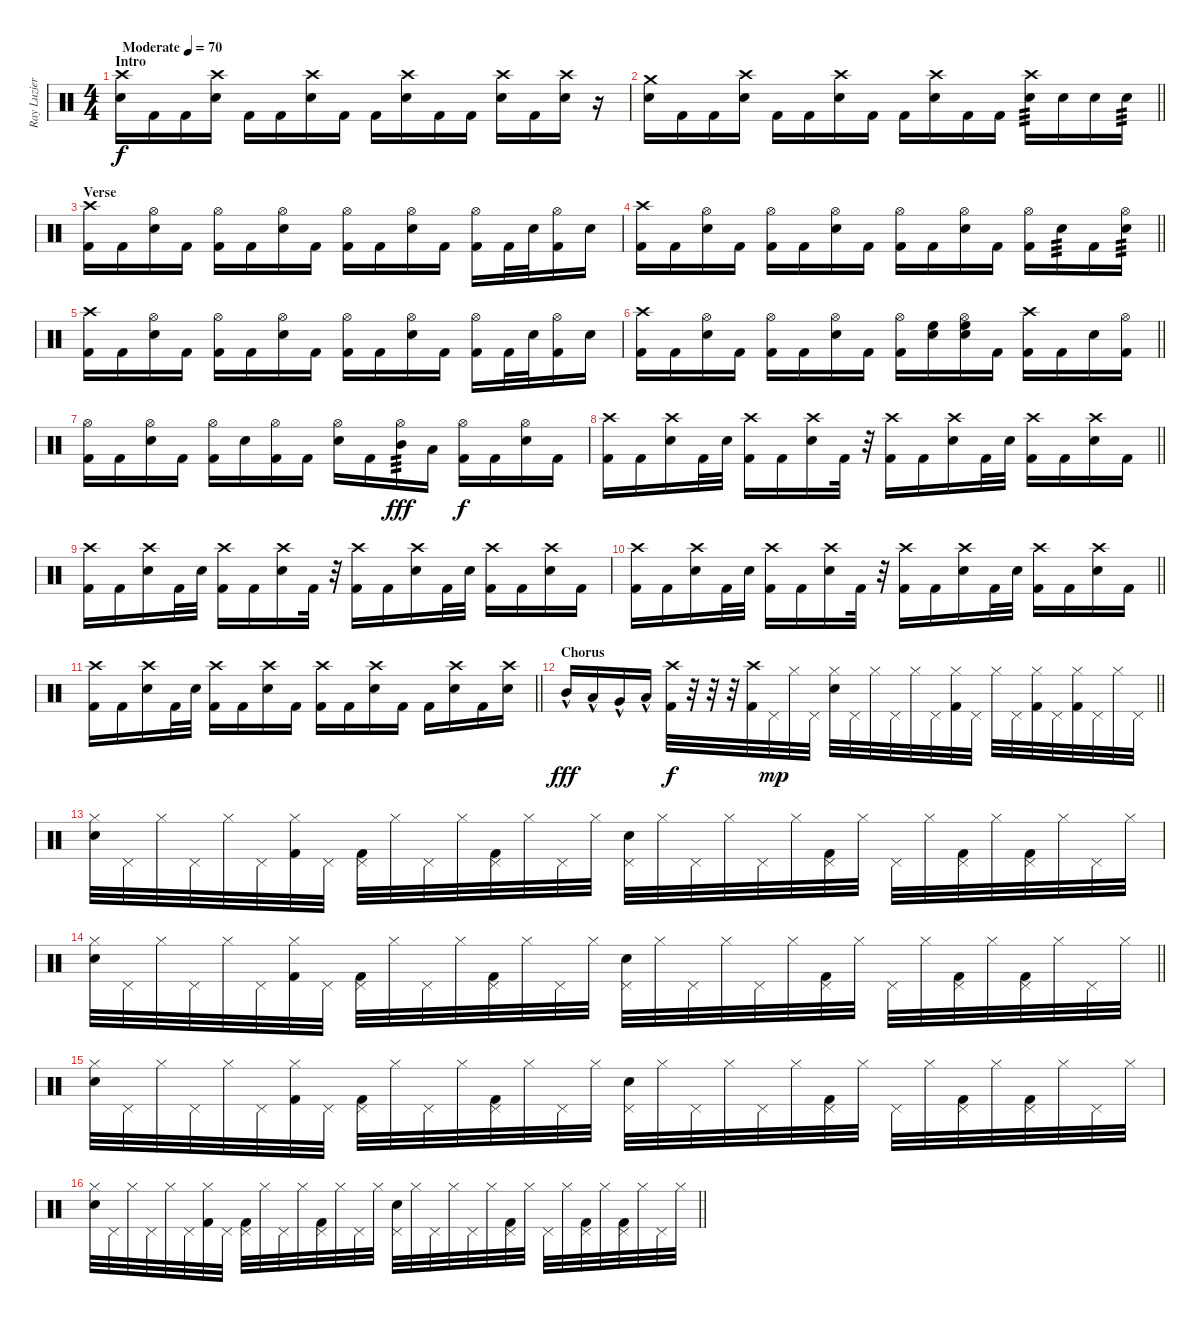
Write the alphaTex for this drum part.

\track ("Ray Luzier (Drums)" "Ray Luzier") {instrument percussion}
\staff {score}
\articulation defaults
\ts (4 4)
\section ("" "Intro")
\tempo (70 "Moderate")
\clef neutral
\ks c
("Crash high (hit)" "Electric Snare (hit)").16{dy f} "Kick (hit) 2".16 "Kick (hit) 2".16 ("Crash high (hit)" "Electric Snare (hit)").16 "Kick (hit) 2".16 "Kick (hit) 2".16 ("Crash high (hit)" "Electric Snare (hit)").16 "Kick (hit) 2".16 "Kick (hit) 2".16 ("Crash high (hit)" "Electric Snare (hit)").16 "Kick (hit) 2".16 "Kick (hit) 2".16 ("Crash high (hit)" "Electric Snare (hit)").16 "Kick (hit) 2".16 ("Crash high (hit)" "Electric Snare (hit)").16 r.16 |
\barLineRight lightlight
("Crash medium (hit)" "Electric Snare (hit)").16 "Kick (hit) 2".16 "Kick (hit) 2".16 ("Crash high (hit)" "Electric Snare (hit)").16 "Kick (hit) 2".16 "Kick (hit) 2".16 ("Crash high (hit)" "Electric Snare (hit)").16 "Kick (hit) 2".16 "Kick (hit) 2".16 ("Crash high (hit)" "Electric Snare (hit)").16 "Kick (hit) 2".16 "Kick (hit) 2".16 ("Crash high (hit)" "Electric Snare (hit)").16{tp 3} "Electric Snare (hit)".16 "Electric Snare (hit)".16 "Electric Snare (hit)".16{tp 3} |
\section ("" "Verse")
("Crash high (hit)" "Kick (hit) 2").16 "Kick (hit) 2".16 ("Hi-Hat (open)" "Electric Snare (hit)").16 "Kick (hit) 2".16 ("Hi-Hat (open)" "Kick (hit) 2").16 "Kick (hit) 2".16 ("Hi-Hat (open)" "Electric Snare (hit)").16 "Kick (hit) 2".16 ("Hi-Hat (open)" "Kick (hit) 2").16 "Kick (hit) 2".16 ("Hi-Hat (open)" "Electric Snare (hit)").16 "Kick (hit) 2".16 ("Hi-Hat (open)" "Kick (hit) 2").16 "Kick (hit) 2".32 "Electric Snare (hit)".32 ("Hi-Hat (open)" "Kick (hit) 2").16 "Electric Snare (hit)".16 |
\barLineRight lightlight
("Crash high (hit)" "Kick (hit) 2").16 "Kick (hit) 2".16 ("Hi-Hat (open)" "Electric Snare (hit)").16 "Kick (hit) 2".16 ("Hi-Hat (open)" "Kick (hit) 2").16 "Kick (hit) 2".16 ("Hi-Hat (open)" "Electric Snare (hit)").16 "Kick (hit) 2".16 ("Hi-Hat (open)" "Kick (hit) 2").16 "Kick (hit) 2".16 ("Hi-Hat (open)" "Electric Snare (hit)").16 "Kick (hit) 2".16 ("Hi-Hat (open)" "Kick (hit) 2").16 "Electric Snare (hit)".16{tp 3} "Kick (hit) 2".16 ("Hi-Hat (open)" "Electric Snare (hit)").16{tp 3} |
("Crash high (hit)" "Kick (hit) 2").16 "Kick (hit) 2".16 ("Hi-Hat (open)" "Electric Snare (hit)").16 "Kick (hit) 2".16 ("Hi-Hat (open)" "Kick (hit) 2").16 "Kick (hit) 2".16 ("Hi-Hat (open)" "Electric Snare (hit)").16 "Kick (hit) 2".16 ("Hi-Hat (open)" "Kick (hit) 2").16 "Kick (hit) 2".16 ("Hi-Hat (open)" "Electric Snare (hit)").16 "Kick (hit) 2".16 ("Hi-Hat (open)" "Kick (hit) 2").16 "Kick (hit) 2".32 "Electric Snare (hit)".32 ("Hi-Hat (open)" "Kick (hit) 2").16 "Electric Snare (hit)".16 |
\barLineRight lightlight
("Crash high (hit)" "Kick (hit) 2").16 "Kick (hit) 2".16 ("Hi-Hat (open)" "Electric Snare (hit)").16 "Kick (hit) 2".16 ("Hi-Hat (open)" "Kick (hit) 2").16 "Kick (hit) 2".16 ("Hi-Hat (open)" "Electric Snare (hit)").16 "Kick (hit) 2".16 ("Hi-Hat (open)" "Kick (hit) 2").16 ("Electric Snare (hit)" "High Floor Tom (hit)").16 ("Hi-Hat (open)" "Electric Snare (hit)" "High Floor Tom (hit)").16 "Kick (hit) 2".16 ("Crash high (hit)" "Kick (hit) 2").16 "Kick (hit) 2".16 "Electric Snare (hit)".16 ("Hi-Hat (open)" "Kick (hit) 2").16 |
("Hi-Hat (open)" "Kick (hit) 2").16 "Kick (hit) 2".16 ("Hi-Hat (open)" "Electric Snare (hit)").16 "Kick (hit) 2".16 ("Hi-Hat (open)" "Kick (hit) 2").16 "Electric Snare (hit)".16 ("Hi-Hat (open)" "Kick (hit) 2").16 "Kick (hit) 2".16 ("Hi-Hat (open)" "Electric Snare (hit)").16 "Kick (hit) 2".16 ("Hi-Hat (open)" "Mid Tom (hit)").16{tp 3 dy fff} "Low Tom (hit)".16 ("Hi-Hat (open)" "Kick (hit) 2").16{dy f} "Kick (hit) 2".16 ("Hi-Hat (open)" "Electric Snare (hit)").16 "Kick (hit) 2".16 |
\barLineRight lightlight
("Crash high (hit)" "Kick (hit) 2").16 "Kick (hit) 2".16 ("Crash high (hit)" "Electric Snare (hit)").16 "Kick (hit) 2".32 "Electric Snare (hit)".32 ("Crash high (hit)" "Kick (hit) 2").16 "Kick (hit) 2".16 ("Crash high (hit)" "Electric Snare (hit)").16 "Kick (hit) 2".32 r.32 ("Crash high (hit)" "Kick (hit) 2").16 "Kick (hit) 2".16 ("Crash high (hit)" "Electric Snare (hit)").16 "Kick (hit) 2".32 "Electric Snare (hit)".32 ("Crash high (hit)" "Kick (hit) 2").16 "Kick (hit) 2".16 ("Crash high (hit)" "Electric Snare (hit)").16 "Kick (hit) 2".16 |
("Crash high (hit)" "Kick (hit) 2").16 "Kick (hit) 2".16 ("Crash high (hit)" "Electric Snare (hit)").16 "Kick (hit) 2".32 "Electric Snare (hit)".32 ("Crash high (hit)" "Kick (hit) 2").16 "Kick (hit) 2".16 ("Crash high (hit)" "Electric Snare (hit)").16 "Kick (hit) 2".32 r.32 ("Crash high (hit)" "Kick (hit) 2").16 "Kick (hit) 2".16 ("Crash high (hit)" "Electric Snare (hit)").16 "Kick (hit) 2".32 "Electric Snare (hit)".32 ("Crash high (hit)" "Kick (hit) 2").16 "Kick (hit) 2".16 ("Crash high (hit)" "Electric Snare (hit)").16 "Kick (hit) 2".16 |
\barLineRight lightlight
("Crash high (hit)" "Kick (hit) 2").16 "Kick (hit) 2".16 ("Crash high (hit)" "Electric Snare (hit)").16 "Kick (hit) 2".32 "Electric Snare (hit)".32 ("Crash high (hit)" "Kick (hit) 2").16 "Kick (hit) 2".16 ("Crash high (hit)" "Electric Snare (hit)").16 "Kick (hit) 2".32 r.32 ("Crash high (hit)" "Kick (hit) 2").16 "Kick (hit) 2".16 ("Crash high (hit)" "Electric Snare (hit)").16 "Kick (hit) 2".32 "Electric Snare (hit)".32 ("Crash high (hit)" "Kick (hit) 2").16 "Kick (hit) 2".16 ("Crash high (hit)" "Electric Snare (hit)").16 "Kick (hit) 2".16 |
\barLineRight lightlight
("Crash high (hit)" "Kick (hit) 2").16 "Kick (hit) 2".16 ("Crash high (hit)" "Electric Snare (hit)").16 "Kick (hit) 2".32 "Electric Snare (hit)".32 ("Crash high (hit)" "Kick (hit) 2").16 "Kick (hit) 2".16 ("Crash high (hit)" "Electric Snare (hit)").16 "Kick (hit) 2".16 ("Crash high (hit)" "Kick (hit) 2").16 "Kick (hit) 2".16 ("Crash high (hit)" "Electric Snare (hit)").16 "Kick (hit) 2".16 "Kick (hit) 2".16 ("Crash high (hit)" "Electric Snare (hit)").16 "Kick (hit) 2".16 ("Crash high (hit)" "Electric Snare (hit)").16 |
\section ("" "Chorus")
\barLineRight lightlight "Mid Tom (hit)"{hac}.16{dy fff} "Low Tom (hit)"{hac}.16 "Very Low Tom (hit)"{hac}.16 "Low Floor Tom (hit)"{hac}.16
("Crash high (hit)" "Kick (hit) 2").32{dy f} r.32 r.32 r.32 ("Crash high (hit)" "Kick (hit) 2").32 "Pedal Hi-Hat (hit)".32{dy mp} "Hi-Hat (closed)".32 "Pedal Hi-Hat (hit)".32 ("Hi-Hat (closed)" "Electric Snare (hit)").32 "Pedal Hi-Hat (hit)".32 "Hi-Hat (closed)".32 "Pedal Hi-Hat (hit)".32 "Hi-Hat (closed)".32 "Pedal Hi-Hat (hit)".32 ("Hi-Hat (closed)" "Kick (hit) 2").32 "Pedal Hi-Hat (hit)".32 "Hi-Hat (closed)".32 "Pedal Hi-Hat (hit)".32 ("Hi-Hat (closed)" "Kick (hit) 2").32 "Pedal Hi-Hat (hit)".32 ("Hi-Hat (closed)" "Kick (hit) 2").32 "Pedal Hi-Hat (hit)".32 "Hi-Hat (closed)".32 "Pedal Hi-Hat (hit)".32 |
("Hi-Hat (closed)" "Electric Snare (hit)").32 "Pedal Hi-Hat (hit)".32 "Hi-Hat (closed)".32 "Pedal Hi-Hat (hit)".32 "Hi-Hat (closed)".32 "Pedal Hi-Hat (hit)".32 ("Hi-Hat (closed)" "Kick (hit) 2").32 "Pedal Hi-Hat (hit)".32 ("Pedal Hi-Hat (hit)" "Kick (hit) 2").32 "Hi-Hat (closed)".32 "Pedal Hi-Hat (hit)".32 "Hi-Hat (closed)".32 ("Pedal Hi-Hat (hit)" "Kick (hit) 2").32 "Hi-Hat (closed)".32 "Pedal Hi-Hat (hit)".32 "Hi-Hat (closed)".32 ("Pedal Hi-Hat (hit)" "Electric Snare (hit)").32 "Hi-Hat (closed)".32 "Pedal Hi-Hat (hit)".32 "Hi-Hat (closed)".32 "Pedal Hi-Hat (hit)".32 "Hi-Hat (closed)".32 ("Pedal Hi-Hat (hit)" "Kick (hit) 2").32 "Hi-Hat (closed)".32 "Pedal Hi-Hat (hit)".32 "Hi-Hat (closed)".32 ("Pedal Hi-Hat (hit)" "Kick (hit) 2").32 "Hi-Hat (closed)".32 ("Pedal Hi-Hat (hit)" "Kick (hit) 2").32 "Hi-Hat (closed)".32 "Pedal Hi-Hat (hit)".32 "Hi-Hat (closed)".32 |
\barLineRight lightlight
("Hi-Hat (closed)" "Electric Snare (hit)").32 "Pedal Hi-Hat (hit)".32 "Hi-Hat (closed)".32 "Pedal Hi-Hat (hit)".32 "Hi-Hat (closed)".32 "Pedal Hi-Hat (hit)".32 ("Hi-Hat (closed)" "Kick (hit) 2").32 "Pedal Hi-Hat (hit)".32 ("Pedal Hi-Hat (hit)" "Kick (hit) 2").32 "Hi-Hat (closed)".32 "Pedal Hi-Hat (hit)".32 "Hi-Hat (closed)".32 ("Pedal Hi-Hat (hit)" "Kick (hit) 2").32 "Hi-Hat (closed)".32 "Pedal Hi-Hat (hit)".32 "Hi-Hat (closed)".32 ("Pedal Hi-Hat (hit)" "Electric Snare (hit)").32 "Hi-Hat (closed)".32 "Pedal Hi-Hat (hit)".32 "Hi-Hat (closed)".32 "Pedal Hi-Hat (hit)".32 "Hi-Hat (closed)".32 ("Pedal Hi-Hat (hit)" "Kick (hit) 2").32 "Hi-Hat (closed)".32 "Pedal Hi-Hat (hit)".32 "Hi-Hat (closed)".32 ("Pedal Hi-Hat (hit)" "Kick (hit) 2").32 "Hi-Hat (closed)".32 ("Pedal Hi-Hat (hit)" "Kick (hit) 2").32 "Hi-Hat (closed)".32 "Pedal Hi-Hat (hit)".32 "Hi-Hat (closed)".32 |
("Hi-Hat (closed)" "Electric Snare (hit)").32 "Pedal Hi-Hat (hit)".32 "Hi-Hat (closed)".32 "Pedal Hi-Hat (hit)".32 "Hi-Hat (closed)".32 "Pedal Hi-Hat (hit)".32 ("Hi-Hat (closed)" "Kick (hit) 2").32 "Pedal Hi-Hat (hit)".32 ("Pedal Hi-Hat (hit)" "Kick (hit) 2").32 "Hi-Hat (closed)".32 "Pedal Hi-Hat (hit)".32 "Hi-Hat (closed)".32 ("Pedal Hi-Hat (hit)" "Kick (hit) 2").32 "Hi-Hat (closed)".32 "Pedal Hi-Hat (hit)".32 "Hi-Hat (closed)".32 ("Pedal Hi-Hat (hit)" "Electric Snare (hit)").32 "Hi-Hat (closed)".32 "Pedal Hi-Hat (hit)".32 "Hi-Hat (closed)".32 "Pedal Hi-Hat (hit)".32 "Hi-Hat (closed)".32 ("Pedal Hi-Hat (hit)" "Kick (hit) 2").32 "Hi-Hat (closed)".32 "Pedal Hi-Hat (hit)".32 "Hi-Hat (closed)".32 ("Pedal Hi-Hat (hit)" "Kick (hit) 2").32 "Hi-Hat (closed)".32 ("Pedal Hi-Hat (hit)" "Kick (hit) 2").32 "Hi-Hat (closed)".32 "Pedal Hi-Hat (hit)".32 "Hi-Hat (closed)".32 |
\barLineRight lightlight
("Hi-Hat (closed)" "Electric Snare (hit)").32 "Pedal Hi-Hat (hit)".32 "Hi-Hat (closed)".32 "Pedal Hi-Hat (hit)".32 "Hi-Hat (closed)".32 "Pedal Hi-Hat (hit)".32 ("Hi-Hat (closed)" "Kick (hit) 2").32 "Pedal Hi-Hat (hit)".32 ("Pedal Hi-Hat (hit)" "Kick (hit) 2").32 "Hi-Hat (closed)".32 "Pedal Hi-Hat (hit)".32 "Hi-Hat (closed)".32 ("Pedal Hi-Hat (hit)" "Kick (hit) 2").32 "Hi-Hat (closed)".32 "Pedal Hi-Hat (hit)".32 "Hi-Hat (closed)".32 ("Pedal Hi-Hat (hit)" "Electric Snare (hit)").32 "Hi-Hat (closed)".32 "Pedal Hi-Hat (hit)".32 "Hi-Hat (closed)".32 "Pedal Hi-Hat (hit)".32 "Hi-Hat (closed)".32 ("Pedal Hi-Hat (hit)" "Kick (hit) 2").32 "Hi-Hat (closed)".32 "Pedal Hi-Hat (hit)".32 "Hi-Hat (closed)".32 ("Pedal Hi-Hat (hit)" "Kick (hit) 2").32 "Hi-Hat (closed)".32 ("Pedal Hi-Hat (hit)" "Kick (hit) 2").32 "Hi-Hat (closed)".32 "Pedal Hi-Hat (hit)".32 "Hi-Hat (closed)".32
